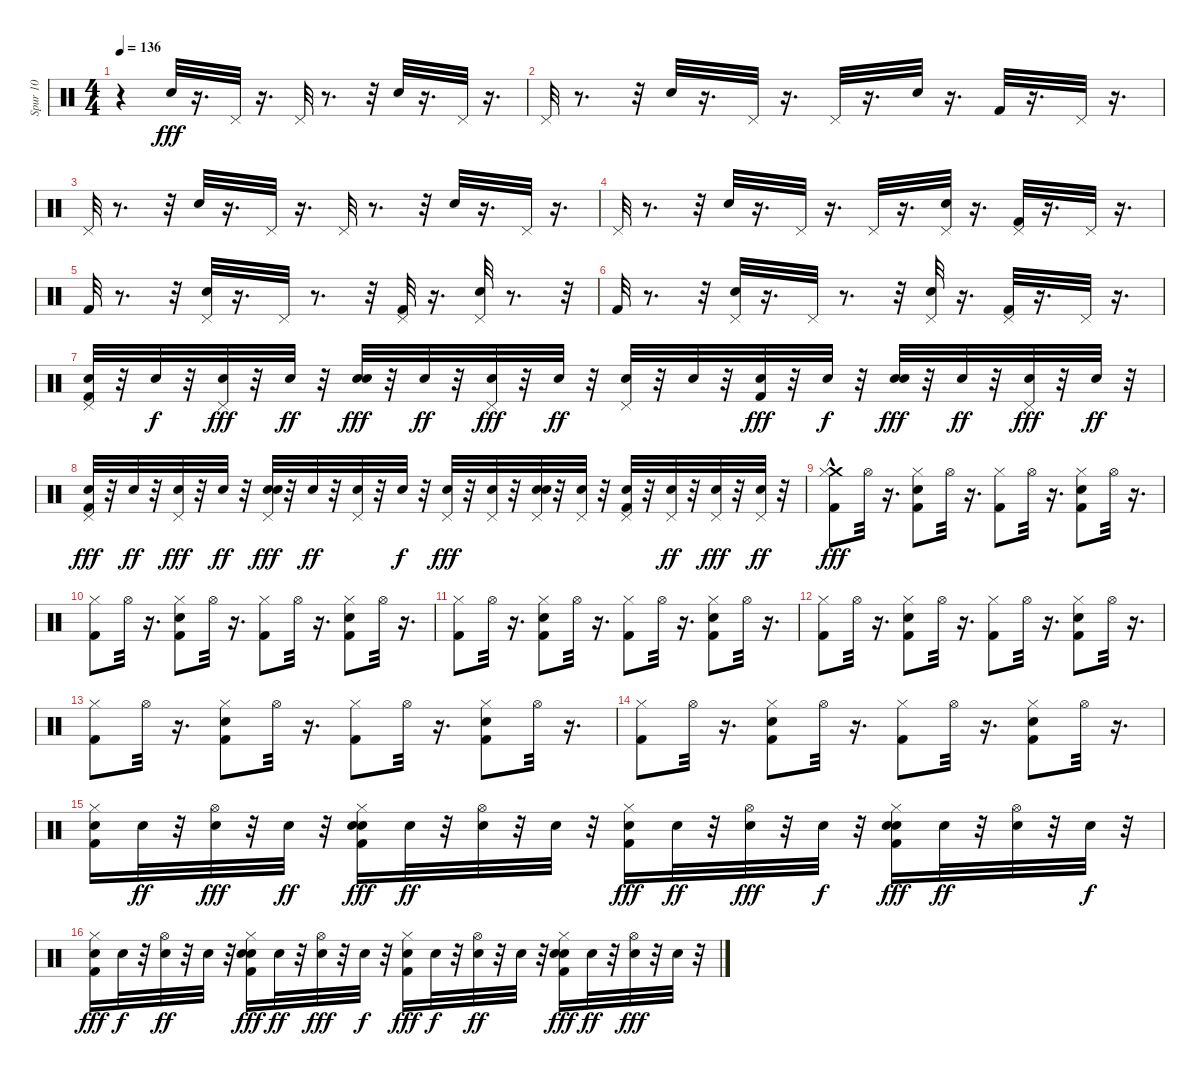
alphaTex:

\track ("Spur 10" "Spur 10") {instrument percussion}
\staff {score}
\articulation defaults
\ts (4 4)
\tempo 136
\clef neutral
\ks c
r.4{dy fff} "Snare (hit) 2".32 r.16{d} "Pedal Hi-Hat (hit)".32 r.16{d} "Pedal Hi-Hat (hit)".32 r.8{d} r.32 "Snare (hit) 2".32 r.16{d} "Pedal Hi-Hat (hit)".32 r.16{d} |
"Pedal Hi-Hat (hit)".32 r.8{d} r.32 "Snare (hit) 2".32 r.16{d} "Pedal Hi-Hat (hit)".32 r.16{d} "Pedal Hi-Hat (hit)".32 r.16{d} "Snare (hit) 2".32 r.16{d} "Kick (hit) 2".32 r.16{d} "Pedal Hi-Hat (hit)".32 r.16{d} |
"Pedal Hi-Hat (hit)".32 r.8{d} r.32 "Snare (hit) 2".32 r.16{d} "Pedal Hi-Hat (hit)".32 r.16{d} "Pedal Hi-Hat (hit)".32 r.8{d} r.32 "Snare (hit) 2".32 r.16{d} "Pedal Hi-Hat (hit)".32 r.16{d} |
"Pedal Hi-Hat (hit)".32 r.8{d} r.32 "Snare (hit) 2".32 r.16{d} "Pedal Hi-Hat (hit)".32 r.16{d} "Pedal Hi-Hat (hit)".32 r.16{d} ("Pedal Hi-Hat (hit)" "Snare (hit) 2").32 r.16{d} ("Pedal Hi-Hat (hit)" "Kick (hit) 2").32 r.16{d} "Pedal Hi-Hat (hit)".32 r.16{d} |
"Kick (hit) 2".32 r.8{d} r.32 ("Pedal Hi-Hat (hit)" "Snare (hit) 2").32 r.16{d} "Pedal Hi-Hat (hit)".32 r.8{d} r.32 ("Pedal Hi-Hat (hit)" "Kick (hit) 2").32 r.16{d} ("Pedal Hi-Hat (hit)" "Snare (hit) 2").32 r.8{d} r.32 |
"Kick (hit) 2".32 r.8{d} r.32 ("Pedal Hi-Hat (hit)" "Snare (hit) 2").32 r.16{d} "Pedal Hi-Hat (hit)".32 r.8{d} r.32 ("Pedal Hi-Hat (hit)" "Snare (hit) 2").32 r.16{d} ("Pedal Hi-Hat (hit)" "Kick (hit) 2").32 r.16{d} "Pedal Hi-Hat (hit)".32 r.16{d} |
("Pedal Hi-Hat (hit)" "Kick (hit) 2" "Snare (hit) 2").32 r.32 "Snare (hit) 2".32{dy f} r.32 ("Pedal Hi-Hat (hit)" "Snare (hit) 2").32{dy fff} r.32 "Snare (hit) 2".32{dy ff} r.32 ("Snare (hit) 2" "Snare (hit) 2").32{dy fff} r.32 "Snare (hit) 2".32{dy ff} r.32 ("Snare (hit) 2" "Pedal Hi-Hat (hit)").32{dy fff} r.32 "Snare (hit) 2".32{dy ff} r.32 ("Pedal Hi-Hat (hit)" "Snare (hit) 2").32 r.32 "Snare (hit) 2".32 r.32 ("Snare (hit) 2" "Kick (hit) 2").32{dy fff} r.32 "Snare (hit) 2".32{dy f} r.32 ("Snare (hit) 2" "Snare (hit) 2").32{dy fff} r.32 "Snare (hit) 2".32{dy ff} r.32 ("Snare (hit) 2" "Pedal Hi-Hat (hit)").32{dy fff} r.32 "Snare (hit) 2".32{dy ff} r.32 |
("Kick (hit) 2" "Snare (hit) 2" "Pedal Hi-Hat (hit)").32{dy fff} r.32 "Snare (hit) 2".32{dy ff} r.32 ("Snare (hit) 2" "Pedal Hi-Hat (hit)").32{dy fff} r.32 "Snare (hit) 2".32{dy ff} r.32 ("Snare (hit) 2" "Pedal Hi-Hat (hit)" "Snare (hit) 2").32{dy fff} r.32 "Snare (hit) 2".32{dy ff} r.32 ("Pedal Hi-Hat (hit)" "Snare (hit) 2").32 r.32 "Snare (hit) 2".32{dy f} r.32 ("Pedal Hi-Hat (hit)" "Snare (hit) 2").32{dy fff} r.32 ("Snare (hit) 2" "Pedal Hi-Hat (hit)").32 r.32 ("Snare (hit) 2" "Snare (hit) 2" "Pedal Hi-Hat (hit)").32 r.32 ("Snare (hit) 2" "Pedal Hi-Hat (hit)").32 r.32 ("Kick (hit) 2" "Snare (hit) 2" "Pedal Hi-Hat (hit)").32 r.32 ("Pedal Hi-Hat (hit)" "Snare (hit) 2").32{dy ff} r.32 ("Snare (hit) 2" "Pedal Hi-Hat (hit)").32{dy fff} r.32 ("Pedal Hi-Hat (hit)" "Snare (hit) 2").32{dy ff} r.32 |
("Kick (hit) 2" "Crash medium (hit)"{hac} "Hi-Hat (closed)").8{dy fff} "Hi-Hat (open)".32 r.16{d} ("Kick (hit) 2" "Snare (hit) 2" "Hi-Hat (closed)").8 "Hi-Hat (open)".32 r.16{d} ("Kick (hit) 2" "Hi-Hat (closed)").8 "Hi-Hat (open)".32 r.16{d} ("Hi-Hat (closed)" "Snare (hit) 2" "Kick (hit) 2").8 "Hi-Hat (open)".32 r.16{d} |
("Kick (hit) 2" "Hi-Hat (closed)").8 "Hi-Hat (open)".32 r.16{d} ("Hi-Hat (closed)" "Snare (hit) 2" "Kick (hit) 2").8 "Hi-Hat (open)".32 r.16{d} ("Kick (hit) 2" "Hi-Hat (closed)").8 "Hi-Hat (open)".32 r.16{d} ("Kick (hit) 2" "Snare (hit) 2" "Hi-Hat (closed)").8 "Hi-Hat (open)".32 r.16{d} |
("Hi-Hat (closed)" "Kick (hit) 2").8 "Hi-Hat (open)".32 r.16{d} ("Kick (hit) 2" "Snare (hit) 2" "Hi-Hat (closed)").8 "Hi-Hat (open)".32 r.16{d} ("Hi-Hat (closed)" "Kick (hit) 2").8 "Hi-Hat (open)".32 r.16{d} ("Kick (hit) 2" "Snare (hit) 2" "Hi-Hat (closed)").8 "Hi-Hat (open)".32 r.16{d} |
("Kick (hit) 2" "Hi-Hat (closed)").8 "Hi-Hat (open)".32 r.16{d} ("Kick (hit) 2" "Snare (hit) 2" "Hi-Hat (closed)").8 "Hi-Hat (open)".32 r.16{d} ("Kick (hit) 2" "Hi-Hat (closed)").8 "Hi-Hat (open)".32 r.16{d} ("Kick (hit) 2" "Snare (hit) 2" "Hi-Hat (closed)").8 "Hi-Hat (open)".32 r.16{d} |
("Hi-Hat (closed)" "Kick (hit) 2").8 "Hi-Hat (open)".32 r.16{d} ("Hi-Hat (closed)" "Kick (hit) 2" "Snare (hit) 2").8 "Hi-Hat (open)".32 r.16{d} ("Hi-Hat (closed)" "Kick (hit) 2").8 "Hi-Hat (open)".32 r.16{d} ("Hi-Hat (closed)" "Kick (hit) 2" "Snare (hit) 2").8 "Hi-Hat (open)".32 r.16{d} |
("Kick (hit) 2" "Hi-Hat (closed)").8 "Hi-Hat (open)".32 r.16{d} ("Kick (hit) 2" "Snare (hit) 2" "Hi-Hat (closed)").8 "Hi-Hat (open)".32 r.16{d} ("Kick (hit) 2" "Hi-Hat (closed)").8 "Hi-Hat (open)".32 r.16{d} ("Kick (hit) 2" "Snare (hit) 2" "Hi-Hat (closed)").8 "Hi-Hat (open)".32 r.16{d} |
("Kick (hit) 2" "Hi-Hat (closed)" "Snare (hit) 2").16 "Snare (hit) 2".32{dy ff} r.32 ("Snare (hit) 2" "Hi-Hat (open)").32{dy fff} r.32 "Snare (hit) 2".32{dy ff} r.32 ("Snare (hit) 2" "Kick (hit) 2" "Hi-Hat (closed)" "Snare (hit) 2").16{dy fff} "Snare (hit) 2".32{dy ff} r.32 ("Hi-Hat (open)" "Snare (hit) 2").32 r.32 "Snare (hit) 2".32 r.32 ("Hi-Hat (closed)" "Snare (hit) 2" "Kick (hit) 2").16{dy fff} "Snare (hit) 2".32{dy ff} r.32 ("Snare (hit) 2" "Hi-Hat (open)").32{dy fff} r.32 "Snare (hit) 2".32{dy f} r.32 ("Kick (hit) 2" "Snare (hit) 2" "Snare (hit) 2" "Hi-Hat (closed)").16{dy fff} "Snare (hit) 2".32{dy ff} r.32 ("Hi-Hat (open)" "Snare (hit) 2").32 r.32 "Snare (hit) 2".32{dy f} r.32 |
("Hi-Hat (closed)" "Snare (hit) 2" "Kick (hit) 2").16{dy fff} "Snare (hit) 2".32{dy f} r.32 ("Hi-Hat (open)" "Snare (hit) 2").32{dy ff} r.32 "Snare (hit) 2".32 r.32 ("Snare (hit) 2" "Snare (hit) 2" "Kick (hit) 2" "Hi-Hat (closed)").16{dy fff} "Snare (hit) 2".32{dy ff} r.32 ("Snare (hit) 2" "Hi-Hat (open)").32{dy fff} r.32 "Snare (hit) 2".32{dy f} r.32 ("Snare (hit) 2" "Hi-Hat (closed)" "Kick (hit) 2").16{dy fff} "Snare (hit) 2".32{dy f} r.32 ("Hi-Hat (open)" "Snare (hit) 2").32{dy ff} r.32 "Snare (hit) 2".32 r.32 ("Snare (hit) 2" "Kick (hit) 2" "Snare (hit) 2" "Hi-Hat (closed)").16{dy fff} "Snare (hit) 2".32{dy ff} r.32 ("Snare (hit) 2" "Hi-Hat (open)").32{dy fff} r.32 "Snare (hit) 2".32 r.32
